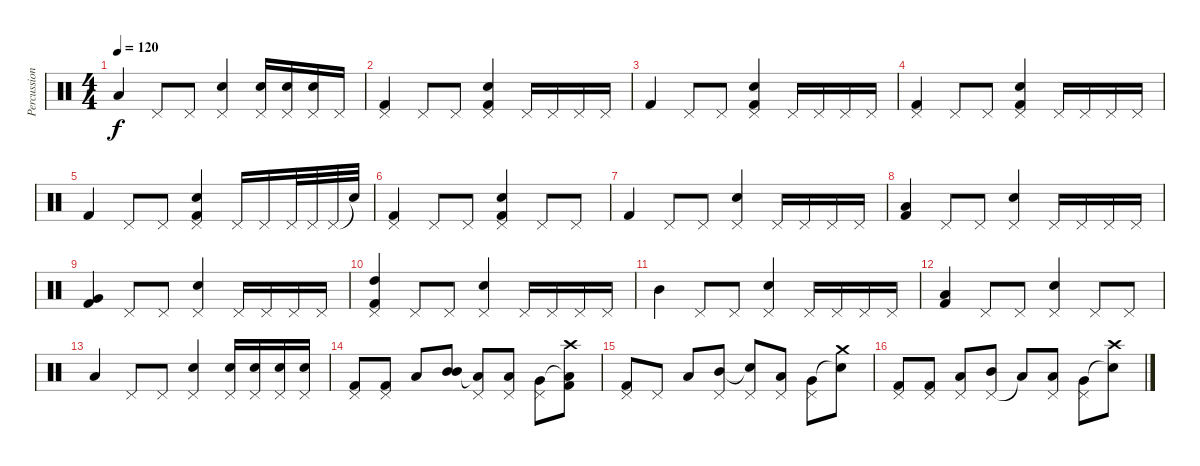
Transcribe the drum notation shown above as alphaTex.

\track ("Percussion" "Percussion") {instrument percussion}
\staff {score}
\articulation defaults
\ts (4 4)
\tempo 120
\clef neutral
\ks c "Low Tom (hit)".4{dy f} "Pedal Hi-Hat (hit)".8 "Pedal Hi-Hat (hit)".8
("Pedal Hi-Hat (hit)" "Snare (hit) 2").4 ("Snare (hit) 2" "Pedal Hi-Hat (hit)").16 ("Snare (hit) 2" "Pedal Hi-Hat (hit)").16 ("Snare (hit) 2" "Pedal Hi-Hat (hit)").16 "Pedal Hi-Hat (hit)".16 |
("Kick (hit) 2" "Pedal Hi-Hat (hit)").4 "Pedal Hi-Hat (hit)".8 "Pedal Hi-Hat (hit)".8 ("Kick (hit) 2" "Pedal Hi-Hat (hit)" "Snare (hit) 2").4 "Pedal Hi-Hat (hit)".16 "Pedal Hi-Hat (hit)".16 "Pedal Hi-Hat (hit)".16 "Pedal Hi-Hat (hit)".16 |
"Kick (hit) 2".4 "Pedal Hi-Hat (hit)".8 "Pedal Hi-Hat (hit)".8 ("Kick (hit) 2" "Pedal Hi-Hat (hit)" "Snare (hit) 2").4 "Pedal Hi-Hat (hit)".16 "Pedal Hi-Hat (hit)".16 "Pedal Hi-Hat (hit)".16 "Pedal Hi-Hat (hit)".16 |
("Pedal Hi-Hat (hit)" "Kick (hit) 2").4 "Pedal Hi-Hat (hit)".8 "Pedal Hi-Hat (hit)".8 ("Kick (hit) 2" "Pedal Hi-Hat (hit)" "Snare (hit) 2").4 "Pedal Hi-Hat (hit)".16 "Pedal Hi-Hat (hit)".16 "Pedal Hi-Hat (hit)".16 "Pedal Hi-Hat (hit)".16 |
"Kick (hit) 2".4 "Pedal Hi-Hat (hit)".8 "Pedal Hi-Hat (hit)".8 ("Kick (hit) 2" "Pedal Hi-Hat (hit)" "Snare (hit) 2").4 "Pedal Hi-Hat (hit)".16 "Pedal Hi-Hat (hit)".16 "Pedal Hi-Hat (hit)".32 "Pedal Hi-Hat (hit)".32 "Pedal Hi-Hat (hit)".32 "Snare (hit)"{t}.32 |
("Kick (hit) 2" "Pedal Hi-Hat (hit)").4 "Pedal Hi-Hat (hit)".8 "Pedal Hi-Hat (hit)".8 ("Kick (hit) 2" "Pedal Hi-Hat (hit)" "Snare (hit) 2").4 "Pedal Hi-Hat (hit)".8 "Pedal Hi-Hat (hit)".8 |
"Kick (hit) 2".4 "Pedal Hi-Hat (hit)".8 "Pedal Hi-Hat (hit)".8 ("Pedal Hi-Hat (hit)" "Snare (hit) 2").4 "Pedal Hi-Hat (hit)".16 "Pedal Hi-Hat (hit)".16 "Pedal Hi-Hat (hit)".16 "Pedal Hi-Hat (hit)".16 |
("Low Tom (hit)" "Kick (hit) 2").4 "Pedal Hi-Hat (hit)".8 "Pedal Hi-Hat (hit)".8 ("Pedal Hi-Hat (hit)" "Snare (hit) 2").4 "Pedal Hi-Hat (hit)".16 "Pedal Hi-Hat (hit)".16 "Pedal Hi-Hat (hit)".16 "Pedal Hi-Hat (hit)".16 |
("Very Low Tom (hit)" "Kick (hit) 2").4 "Pedal Hi-Hat (hit)".8 "Pedal Hi-Hat (hit)".8 ("Pedal Hi-Hat (hit)" "Snare (hit) 2").4 "Pedal Hi-Hat (hit)".16 "Pedal Hi-Hat (hit)".16 "Pedal Hi-Hat (hit)".16 "Pedal Hi-Hat (hit)".16 |
("Kick (hit) 2" "Pedal Hi-Hat (hit)" "High Tom (hit)").4 "Pedal Hi-Hat (hit)".8 "Pedal Hi-Hat (hit)".8 ("Pedal Hi-Hat (hit)" "Snare (hit) 2").4 "Pedal Hi-Hat (hit)".16 "Pedal Hi-Hat (hit)".16 "Pedal Hi-Hat (hit)".16 "Pedal Hi-Hat (hit)".16 |
"Mid Tom (hit)".4 "Pedal Hi-Hat (hit)".8 "Pedal Hi-Hat (hit)".8 ("Pedal Hi-Hat (hit)" "Snare (hit) 2").4 "Pedal Hi-Hat (hit)".16 "Pedal Hi-Hat (hit)".16 "Pedal Hi-Hat (hit)".16 "Pedal Hi-Hat (hit)".16 |
("Low Tom (hit)" "Kick (hit) 2").4 "Pedal Hi-Hat (hit)".8 "Pedal Hi-Hat (hit)".8 ("Pedal Hi-Hat (hit)" "Snare (hit) 2").4 "Pedal Hi-Hat (hit)".8 "Pedal Hi-Hat (hit)".8 |
"Low Tom (hit)".4 "Pedal Hi-Hat (hit)".8 "Pedal Hi-Hat (hit)".8 ("Pedal Hi-Hat (hit)" "Snare (hit) 2").4 ("Snare (hit) 2" "Pedal Hi-Hat (hit)").16 ("Snare (hit) 2" "Pedal Hi-Hat (hit)").16 ("Snare (hit) 2" "Pedal Hi-Hat (hit)").16 ("Snare (hit) 2" "Pedal Hi-Hat (hit)").16 |
("Pedal Hi-Hat (hit)" "Kick (hit) 2").8 ("Pedal Hi-Hat (hit)" "Kick (hit) 2").8 "Low Tom (hit)".8 ("Mid Tom (hit)" "Mid Tom (hit)").8 ("Pedal Hi-Hat (hit)" "Low Tom (hit)"{t}).8 ("Pedal Hi-Hat (hit)" "Low Tom (hit)").8 ("Pedal Hi-Hat (hit)" "Very Low Tom (hit)").8 ("Crash high (hit)" "Low Tom (hit)"{t} "Kick (hit) 2").8 |
("Pedal Hi-Hat (hit)" "Kick (hit) 2").8 "Pedal Hi-Hat (hit)".8 "Low Tom (hit)".8 ("Pedal Hi-Hat (hit)" "Mid Tom (hit)").8 ("Pedal Hi-Hat (hit)" "Snare (hit)"{t}).8 ("Pedal Hi-Hat (hit)" "Low Tom (hit)").8 ("Pedal Hi-Hat (hit)" "Very Low Tom (hit)").8 ("Crash medium (hit)" "Snare (hit)"{t}).8 |
("Pedal Hi-Hat (hit)" "Kick (hit) 2").8 ("Pedal Hi-Hat (hit)" "Kick (hit) 2").8 ("Pedal Hi-Hat (hit)" "Low Tom (hit)").8 ("Pedal Hi-Hat (hit)" "Mid Tom (hit)").8 "Low Tom (hit)"{t}.8 ("Pedal Hi-Hat (hit)" "Low Tom (hit)").8 ("Pedal Hi-Hat (hit)" "Very Low Tom (hit)").8 ("Crash high (hit)" "Snare (hit)"{t}).8
